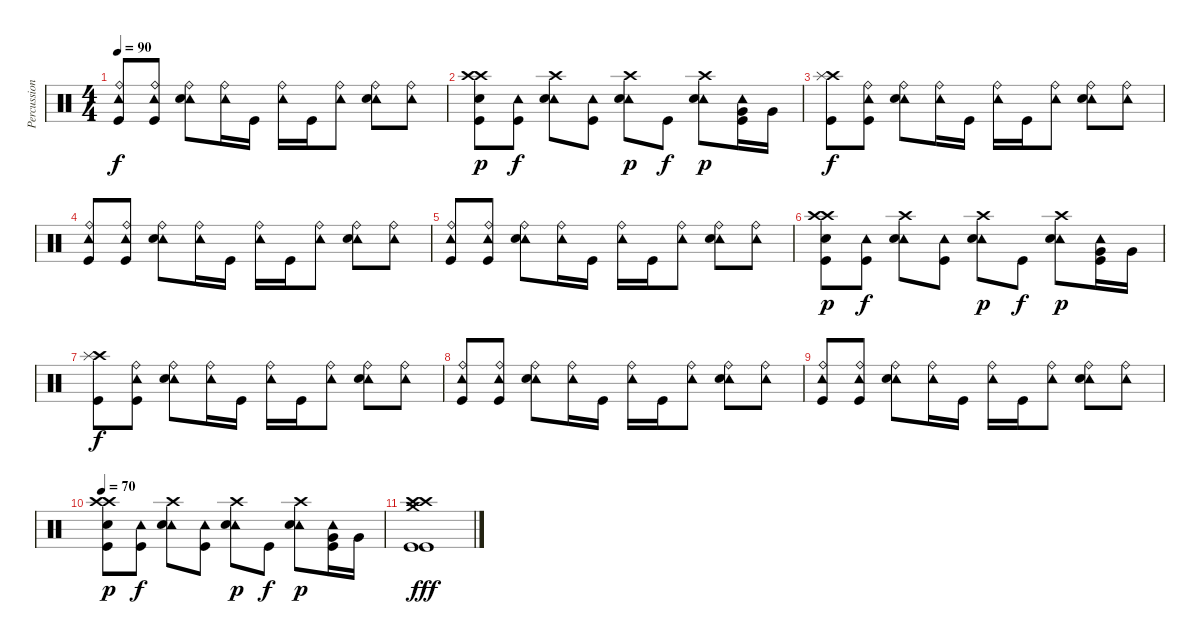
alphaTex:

\track ("Percussion" "Percussion") {instrument percussion}
\staff {score}
\articulation defaults
\ts (4 4)
\tempo 90
\clef neutral
\ks c
("Tambourine (hit)" "Ride (bell)" "Kick (hit)").8{dy f} ("Tambourine (hit)" "Ride (bell)" "Kick (hit)").8 ("Tambourine (hit)" "Ride (bell)" "Electric Snare (hit)").8 ("Tambourine (hit)" "Ride (bell)").16 "Kick (hit)".16 ("Tambourine (hit)" "Ride (bell)").16 "Kick (hit)".16 ("Tambourine (hit)" "Ride (bell)").8 ("Tambourine (hit)" "Ride (bell)" "Electric Snare (hit)").8 ("Tambourine (hit)" "Ride (bell)").8 |
("Crash high (hit)" "Crash high (hit)" "Electric Snare (hit)" "Kick (hit)").8{dy p} ("Tambourine (hit)" "Kick (hit)").8{dy f} ("Tambourine (hit)" "Crash high (hit)" "Electric Snare (hit)").8 ("Tambourine (hit)" "Kick (hit)").8 ("Tambourine (hit)" "Crash high (hit)" "Electric Snare (hit)").8{dy p} "Kick (hit)".8{dy f} ("Tambourine (hit)" "Crash high (hit)" "Electric Snare (hit)").8{dy p} ("Tambourine (hit)" "Very Low Tom (hit)" "Kick (hit)").16 "Very Low Tom (hit)".16 |
("Crash high (hit)" "Splash (hit)" "Kick (hit)").8{dy f} ("Tambourine (hit)" "Ride (bell)" "Kick (hit)").8 ("Tambourine (hit)" "Ride (bell)" "Electric Snare (hit)").8 ("Tambourine (hit)" "Ride (bell)").16 "Kick (hit)".16 ("Tambourine (hit)" "Ride (bell)").16 "Kick (hit)".16 ("Tambourine (hit)" "Ride (bell)").8 ("Tambourine (hit)" "Ride (bell)" "Electric Snare (hit)").8 ("Tambourine (hit)" "Ride (bell)").8 |
("Tambourine (hit)" "Ride (bell)" "Kick (hit)").8 ("Tambourine (hit)" "Ride (bell)" "Kick (hit)").8 ("Tambourine (hit)" "Ride (bell)" "Electric Snare (hit)").8 ("Tambourine (hit)" "Ride (bell)").16 "Kick (hit)".16 ("Tambourine (hit)" "Ride (bell)").16 "Kick (hit)".16 ("Tambourine (hit)" "Ride (bell)").8 ("Tambourine (hit)" "Ride (bell)" "Electric Snare (hit)").8 ("Tambourine (hit)" "Ride (bell)").8 |
("Tambourine (hit)" "Ride (bell)" "Kick (hit)").8 ("Tambourine (hit)" "Ride (bell)" "Kick (hit)").8 ("Tambourine (hit)" "Ride (bell)" "Electric Snare (hit)").8 ("Tambourine (hit)" "Ride (bell)").16 "Kick (hit)".16 ("Tambourine (hit)" "Ride (bell)").16 "Kick (hit)".16 ("Tambourine (hit)" "Ride (bell)").8 ("Tambourine (hit)" "Ride (bell)" "Electric Snare (hit)").8 ("Tambourine (hit)" "Ride (bell)").8 |
("Crash high (hit)" "Crash high (hit)" "Electric Snare (hit)" "Kick (hit)").8{dy p} ("Tambourine (hit)" "Kick (hit)").8{dy f} ("Tambourine (hit)" "Crash high (hit)" "Electric Snare (hit)").8 ("Tambourine (hit)" "Kick (hit)").8 ("Tambourine (hit)" "Crash high (hit)" "Electric Snare (hit)").8{dy p} "Kick (hit)".8{dy f} ("Tambourine (hit)" "Crash high (hit)" "Electric Snare (hit)").8{dy p} ("Tambourine (hit)" "Very Low Tom (hit)" "Kick (hit)").16 "Very Low Tom (hit)".16 |
("Crash high (hit)" "Splash (hit)" "Kick (hit)").8{dy f} ("Tambourine (hit)" "Ride (bell)" "Kick (hit)").8 ("Tambourine (hit)" "Ride (bell)" "Electric Snare (hit)").8 ("Tambourine (hit)" "Ride (bell)").16 "Kick (hit)".16 ("Tambourine (hit)" "Ride (bell)").16 "Kick (hit)".16 ("Tambourine (hit)" "Ride (bell)").8 ("Tambourine (hit)" "Ride (bell)" "Electric Snare (hit)").8 ("Tambourine (hit)" "Ride (bell)").8 |
("Tambourine (hit)" "Ride (bell)" "Kick (hit)").8 ("Tambourine (hit)" "Ride (bell)" "Kick (hit)").8 ("Tambourine (hit)" "Ride (bell)" "Electric Snare (hit)").8 ("Tambourine (hit)" "Ride (bell)").16 "Kick (hit)".16 ("Tambourine (hit)" "Ride (bell)").16 "Kick (hit)".16 ("Tambourine (hit)" "Ride (bell)").8 ("Tambourine (hit)" "Ride (bell)" "Electric Snare (hit)").8 ("Tambourine (hit)" "Ride (bell)").8 |
("Tambourine (hit)" "Ride (bell)" "Kick (hit)").8 ("Tambourine (hit)" "Ride (bell)" "Kick (hit)").8 ("Tambourine (hit)" "Ride (bell)" "Electric Snare (hit)").8 ("Tambourine (hit)" "Ride (bell)").16 "Kick (hit)".16 ("Tambourine (hit)" "Ride (bell)").16 "Kick (hit)".16 ("Tambourine (hit)" "Ride (bell)").8 ("Tambourine (hit)" "Ride (bell)" "Electric Snare (hit)").8 ("Tambourine (hit)" "Ride (bell)").8 |
\tempo 70
("Crash high (hit)" "Crash high (hit)" "Electric Snare (hit)" "Kick (hit)").8{dy p} ("Tambourine (hit)" "Kick (hit)").8{dy f} ("Tambourine (hit)" "Crash high (hit)" "Electric Snare (hit)").8 ("Tambourine (hit)" "Kick (hit)").8 ("Tambourine (hit)" "Crash high (hit)" "Electric Snare (hit)").8{dy p} "Kick (hit)".8{dy f} ("Tambourine (hit)" "Crash high (hit)" "Electric Snare (hit)").8{dy p} ("Tambourine (hit)" "Very Low Tom (hit)" "Kick (hit)").16 "Very Low Tom (hit)".16 |
("Crash medium (hit)" "Crash high (hit)" "Crash high (hit)" "Kick (hit)" "Kick (hit)").1{dy fff}
